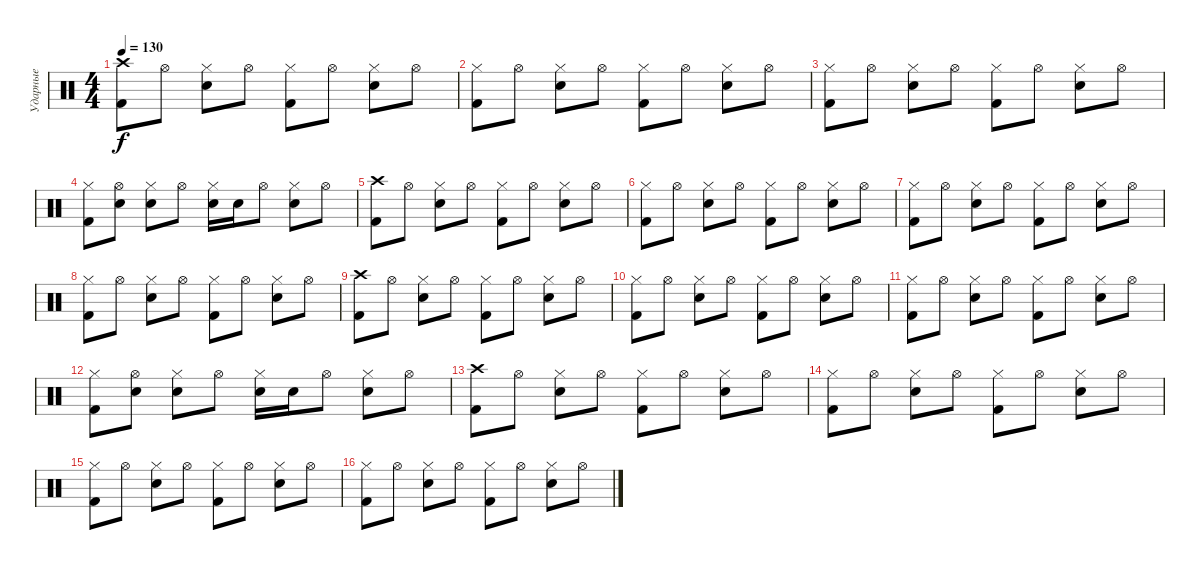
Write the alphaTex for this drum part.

\track ("Ударные" "Ударные") {instrument percussion}
\staff {score}
\articulation defaults
\ts (4 4)
\tempo 130
\clef neutral
\ks c
("Crash high (hit)" "Kick (hit) 2").8{dy f} "Hi-Hat (open)".8 ("Hi-Hat (closed)" "Snare (hit) 2").8 "Hi-Hat (open)".8 ("Hi-Hat (closed)" "Kick (hit) 2").8 "Hi-Hat (open)".8 ("Hi-Hat (closed)" "Snare (hit) 2").8 "Hi-Hat (open)".8 |
("Hi-Hat (closed)" "Kick (hit) 2").8 "Hi-Hat (open)".8 ("Hi-Hat (closed)" "Snare (hit) 2").8 "Hi-Hat (open)".8 ("Hi-Hat (closed)" "Kick (hit) 2").8 "Hi-Hat (open)".8 ("Hi-Hat (closed)" "Snare (hit) 2").8 "Hi-Hat (open)".8 |
("Hi-Hat (closed)" "Kick (hit) 2").8 "Hi-Hat (open)".8 ("Hi-Hat (closed)" "Snare (hit) 2").8 "Hi-Hat (open)".8 ("Hi-Hat (closed)" "Kick (hit) 2").8 "Hi-Hat (open)".8 ("Hi-Hat (closed)" "Snare (hit) 2").8 "Hi-Hat (open)".8 |
("Hi-Hat (closed)" "Kick (hit) 2").8 ("Hi-Hat (open)" "Snare (hit) 2").8 ("Hi-Hat (closed)" "Snare (hit) 2").8 "Hi-Hat (open)".8 ("Hi-Hat (closed)" "Snare (hit) 2").16 "Snare (hit) 2".16 "Hi-Hat (open)".8 ("Hi-Hat (closed)" "Snare (hit) 2").8 "Hi-Hat (open)".8 |
("Crash high (hit)" "Kick (hit) 2").8 "Hi-Hat (open)".8 ("Hi-Hat (closed)" "Snare (hit) 2").8 "Hi-Hat (open)".8 ("Hi-Hat (closed)" "Kick (hit) 2").8 "Hi-Hat (open)".8 ("Hi-Hat (closed)" "Snare (hit) 2").8 "Hi-Hat (open)".8 |
("Hi-Hat (closed)" "Kick (hit) 2").8 "Hi-Hat (open)".8 ("Hi-Hat (closed)" "Snare (hit) 2").8 "Hi-Hat (open)".8 ("Hi-Hat (closed)" "Kick (hit) 2").8 "Hi-Hat (open)".8 ("Hi-Hat (closed)" "Snare (hit) 2").8 "Hi-Hat (open)".8 |
("Hi-Hat (closed)" "Kick (hit) 2").8 "Hi-Hat (open)".8 ("Hi-Hat (closed)" "Snare (hit) 2").8 "Hi-Hat (open)".8 ("Hi-Hat (closed)" "Kick (hit) 2").8 "Hi-Hat (open)".8 ("Hi-Hat (closed)" "Snare (hit) 2").8 "Hi-Hat (open)".8 |
("Hi-Hat (closed)" "Kick (hit) 2").8 "Hi-Hat (open)".8 ("Hi-Hat (closed)" "Snare (hit) 2").8 "Hi-Hat (open)".8 ("Hi-Hat (closed)" "Kick (hit) 2").8 "Hi-Hat (open)".8 ("Hi-Hat (closed)" "Snare (hit) 2").8 "Hi-Hat (open)".8 |
("Crash high (hit)" "Kick (hit) 2").8 "Hi-Hat (open)".8 ("Hi-Hat (closed)" "Snare (hit) 2").8 "Hi-Hat (open)".8 ("Hi-Hat (closed)" "Kick (hit) 2").8 "Hi-Hat (open)".8 ("Hi-Hat (closed)" "Snare (hit) 2").8 "Hi-Hat (open)".8 |
("Hi-Hat (closed)" "Kick (hit) 2").8 "Hi-Hat (open)".8 ("Hi-Hat (closed)" "Snare (hit) 2").8 "Hi-Hat (open)".8 ("Hi-Hat (closed)" "Kick (hit) 2").8 "Hi-Hat (open)".8 ("Hi-Hat (closed)" "Snare (hit) 2").8 "Hi-Hat (open)".8 |
("Hi-Hat (closed)" "Kick (hit) 2").8 "Hi-Hat (open)".8 ("Hi-Hat (closed)" "Snare (hit) 2").8 "Hi-Hat (open)".8 ("Hi-Hat (closed)" "Kick (hit) 2").8 "Hi-Hat (open)".8 ("Hi-Hat (closed)" "Snare (hit) 2").8 "Hi-Hat (open)".8 |
("Hi-Hat (closed)" "Kick (hit) 2").8 ("Hi-Hat (open)" "Snare (hit) 2").8 ("Hi-Hat (closed)" "Snare (hit) 2").8 "Hi-Hat (open)".8 ("Hi-Hat (closed)" "Snare (hit) 2").16 "Snare (hit) 2".16 "Hi-Hat (open)".8 ("Hi-Hat (closed)" "Snare (hit) 2").8 "Hi-Hat (open)".8 |
("Crash high (hit)" "Kick (hit) 2").8 "Hi-Hat (open)".8 ("Hi-Hat (closed)" "Snare (hit) 2").8 "Hi-Hat (open)".8 ("Hi-Hat (closed)" "Kick (hit) 2").8 "Hi-Hat (open)".8 ("Hi-Hat (closed)" "Snare (hit) 2").8 "Hi-Hat (open)".8 |
("Hi-Hat (closed)" "Kick (hit) 2").8 "Hi-Hat (open)".8 ("Hi-Hat (closed)" "Snare (hit) 2").8 "Hi-Hat (open)".8 ("Hi-Hat (closed)" "Kick (hit) 2").8 "Hi-Hat (open)".8 ("Hi-Hat (closed)" "Snare (hit) 2").8 "Hi-Hat (open)".8 |
("Hi-Hat (closed)" "Kick (hit) 2").8 "Hi-Hat (open)".8 ("Hi-Hat (closed)" "Snare (hit) 2").8 "Hi-Hat (open)".8 ("Hi-Hat (closed)" "Kick (hit) 2").8 "Hi-Hat (open)".8 ("Hi-Hat (closed)" "Snare (hit) 2").8 "Hi-Hat (open)".8 |
("Hi-Hat (closed)" "Kick (hit) 2").8 "Hi-Hat (open)".8 ("Hi-Hat (closed)" "Snare (hit) 2").8 "Hi-Hat (open)".8 ("Hi-Hat (closed)" "Kick (hit) 2").8 "Hi-Hat (open)".8 ("Hi-Hat (closed)" "Snare (hit) 2").8 "Hi-Hat (open)".8
